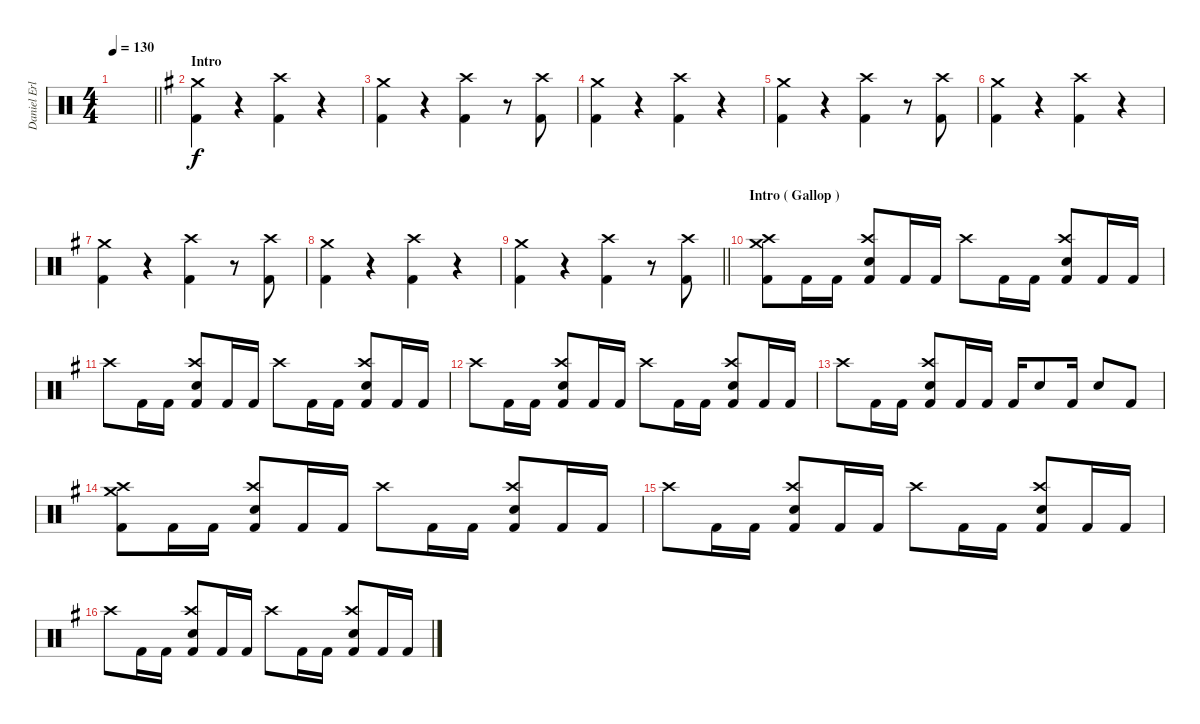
\track ("Daniel Erlandsson" "Daniel Erl") {instrument percussion}
\staff {score}
\articulation defaults
\ts (4 4)
\tempo 130
\clef neutral
\barLineRight lightlight
\ks c
|
\section ("" "Intro")
\ks g
("Crash medium (hit)" "Kick (hit) 2").4 r.4 ("Crash high (hit)" "Kick (hit) 2").4 r.4 |
("Crash medium (hit)" "Kick (hit) 2").4 r.4 ("Crash high (hit)" "Kick (hit) 2").4 r.8 ("Crash high (hit)" "Kick (hit) 2").8 |
("Crash medium (hit)" "Kick (hit) 2").4 r.4 ("Crash high (hit)" "Kick (hit) 2").4 r.4 |
("Crash medium (hit)" "Kick (hit) 2").4 r.4 ("Crash high (hit)" "Kick (hit) 2").4 r.8 ("Crash high (hit)" "Kick (hit) 2").8 |
("Crash medium (hit)" "Kick (hit) 2").4 r.4 ("Crash high (hit)" "Kick (hit) 2").4 r.4 |
("Crash medium (hit)" "Kick (hit) 2").4 r.4 ("Crash high (hit)" "Kick (hit) 2").4 r.8 ("Crash high (hit)" "Kick (hit) 2").8 |
("Crash medium (hit)" "Kick (hit) 2").4 r.4 ("Crash high (hit)" "Kick (hit) 2").4 r.4 |
\barLineRight lightlight
("Crash medium (hit)" "Kick (hit) 2").4 r.4 ("Crash high (hit)" "Kick (hit) 2").4 r.8 ("Crash high (hit)" "Kick (hit) 2").8 |
\section ("" "Intro ( Gallop )")
("Crash medium (hit)" "Kick (hit) 2" "Crash high (hit)").8 "Kick (hit) 2".16 "Kick (hit) 2".16 ("Crash high (hit)" "Kick (hit) 2" "Electric Snare (hit)").8 "Kick (hit) 2".16 "Kick (hit) 2".16 "Crash high (hit)".8 "Kick (hit) 2".16 "Kick (hit) 2".16 ("Crash high (hit)" "Kick (hit) 2" "Electric Snare (hit)").8 "Kick (hit) 2".16 "Kick (hit) 2".16 |
"Crash high (hit)".8 "Kick (hit) 2".16 "Kick (hit) 2".16 ("Crash high (hit)" "Kick (hit) 2" "Electric Snare (hit)").8 "Kick (hit) 2".16 "Kick (hit) 2".16 "Crash high (hit)".8 "Kick (hit) 2".16 "Kick (hit) 2".16 ("Crash high (hit)" "Kick (hit) 2" "Electric Snare (hit)").8 "Kick (hit) 2".16 "Kick (hit) 2".16 |
"Crash high (hit)".8 "Kick (hit) 2".16 "Kick (hit) 2".16 ("Crash high (hit)" "Kick (hit) 2" "Electric Snare (hit)").8 "Kick (hit) 2".16 "Kick (hit) 2".16 "Crash high (hit)".8 "Kick (hit) 2".16 "Kick (hit) 2".16 ("Crash high (hit)" "Kick (hit) 2" "Electric Snare (hit)").8 "Kick (hit) 2".16 "Kick (hit) 2".16 |
"Crash high (hit)".8 "Kick (hit) 2".16 "Kick (hit) 2".16 ("Crash high (hit)" "Kick (hit) 2" "Electric Snare (hit)").8 "Kick (hit) 2".16 "Kick (hit) 2".16 "Kick (hit) 2".16 "Electric Snare (hit)".8 "Kick (hit) 2".16 "Electric Snare (hit)".8 "Kick (hit) 2".8 |
("Crash medium (hit)" "Kick (hit) 2" "Crash high (hit)").8 "Kick (hit) 2".16 "Kick (hit) 2".16 ("Crash high (hit)" "Kick (hit) 2" "Electric Snare (hit)").8 "Kick (hit) 2".16 "Kick (hit) 2".16 "Crash high (hit)".8 "Kick (hit) 2".16 "Kick (hit) 2".16 ("Crash high (hit)" "Kick (hit) 2" "Electric Snare (hit)").8 "Kick (hit) 2".16 "Kick (hit) 2".16 |
"Crash high (hit)".8 "Kick (hit) 2".16 "Kick (hit) 2".16 ("Crash high (hit)" "Kick (hit) 2" "Electric Snare (hit)").8 "Kick (hit) 2".16 "Kick (hit) 2".16 "Crash high (hit)".8 "Kick (hit) 2".16 "Kick (hit) 2".16 ("Crash high (hit)" "Kick (hit) 2" "Electric Snare (hit)").8 "Kick (hit) 2".16 "Kick (hit) 2".16 |
"Crash high (hit)".8 "Kick (hit) 2".16 "Kick (hit) 2".16 ("Crash high (hit)" "Kick (hit) 2" "Electric Snare (hit)").8 "Kick (hit) 2".16 "Kick (hit) 2".16 "Crash high (hit)".8 "Kick (hit) 2".16 "Kick (hit) 2".16 ("Crash high (hit)" "Kick (hit) 2" "Electric Snare (hit)").8 "Kick (hit) 2".16 "Kick (hit) 2".16
